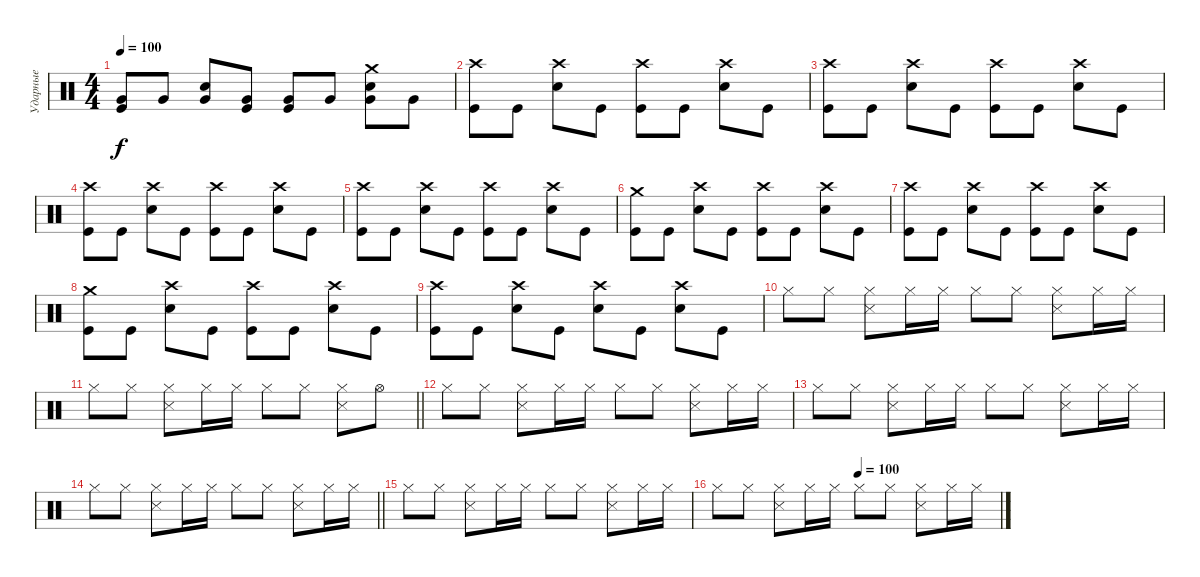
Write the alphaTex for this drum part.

\track ("Ударные" "Ударные") {instrument percussion}
\staff {score}
\articulation defaults
\ts (4 4)
\tempo 100
\clef neutral
\ks c
("Very Low Tom (hit)" "Kick (hit)").8{dy f} "Very Low Tom (hit)".8 ("Very Low Tom (hit)" "Snare (hit) 2").8 ("Very Low Tom (hit)" "Kick (hit)").8 ("Very Low Tom (hit)" "Kick (hit)").8 "Very Low Tom (hit)".8 ("Crash medium (hit)" "Very Low Tom (hit)" "Snare (hit) 2").8 "Very Low Tom (hit)".8 |
("Crash high (hit)" "Kick (hit)").8 "Kick (hit)".8 ("Crash high (hit)" "Snare (hit) 2").8 "Kick (hit)".8 ("Crash high (hit)" "Kick (hit)").8 "Kick (hit)".8 ("Crash high (hit)" "Snare (hit) 2").8 "Kick (hit)".8 |
("Crash high (hit)" "Kick (hit)").8 "Kick (hit)".8 ("Crash high (hit)" "Snare (hit) 2").8 "Kick (hit)".8 ("Crash high (hit)" "Kick (hit)").8 "Kick (hit)".8 ("Crash high (hit)" "Snare (hit) 2").8 "Kick (hit)".8 |
("Crash high (hit)" "Kick (hit)").8 "Kick (hit)".8 ("Crash high (hit)" "Snare (hit) 2").8 "Kick (hit)".8 ("Crash high (hit)" "Kick (hit)").8 "Kick (hit)".8 ("Crash high (hit)" "Snare (hit) 2").8 "Kick (hit)".8 |
("Crash high (hit)" "Kick (hit)").8 "Kick (hit)".8 ("Crash high (hit)" "Snare (hit) 2").8 "Kick (hit)".8 ("Crash high (hit)" "Kick (hit)").8 "Kick (hit)".8 ("Crash high (hit)" "Snare (hit) 2").8 "Kick (hit)".8 |
("Crash medium (hit)" "Kick (hit)").8 "Kick (hit)".8 ("Crash high (hit)" "Snare (hit) 2").8 "Kick (hit)".8 ("Crash high (hit)" "Kick (hit)").8 "Kick (hit)".8 ("Crash high (hit)" "Snare (hit) 2").8 "Kick (hit)".8 |
("Crash high (hit)" "Kick (hit)").8 "Kick (hit)".8 ("Crash high (hit)" "Snare (hit) 2").8 "Kick (hit)".8 ("Crash high (hit)" "Kick (hit)").8 "Kick (hit)".8 ("Crash high (hit)" "Snare (hit) 2").8 "Kick (hit)".8 |
("Crash medium (hit)" "Kick (hit)").8 "Kick (hit)".8 ("Crash high (hit)" "Snare (hit) 2").8 "Kick (hit)".8 ("Crash high (hit)" "Kick (hit)").8 "Kick (hit)".8 ("Crash high (hit)" "Snare (hit) 2").8 "Kick (hit)".8 |
("Crash high (hit)" "Kick (hit)").8 "Kick (hit)".8 ("Crash high (hit)" "Snare (hit) 2").8 "Kick (hit)".8 ("Crash high (hit)" "Snare (hit) 2").8 "Kick (hit)".8 ("Crash high (hit)" "Snare (hit) 2").8 "Kick (hit)".8 |
"Hi-Hat (closed)".8 "Hi-Hat (closed)".8 ("Hi-Hat (closed)" "Snare (side stick) 3").8 "Hi-Hat (closed)".16 "Hi-Hat (closed)".16 "Hi-Hat (closed)".8 "Hi-Hat (closed)".8 ("Hi-Hat (closed)" "Snare (side stick) 3").8 "Hi-Hat (closed)".16 "Hi-Hat (closed)".16 |
\barLineRight lightlight "Hi-Hat (closed)".8 "Hi-Hat (closed)".8
("Hi-Hat (closed)" "Snare (side stick) 3").8 "Hi-Hat (closed)".16 "Hi-Hat (closed)".16 "Hi-Hat (closed)".8 "Hi-Hat (closed)".8 ("Hi-Hat (closed)" "Snare (side stick) 3").8 "Hi-Hat (open)".8 |
"Hi-Hat (closed)".8 "Hi-Hat (closed)".8 ("Hi-Hat (closed)" "Snare (side stick) 3").8 "Hi-Hat (closed)".16 "Hi-Hat (closed)".16 "Hi-Hat (closed)".8 "Hi-Hat (closed)".8 ("Hi-Hat (closed)" "Snare (side stick) 3").8 "Hi-Hat (closed)".16 "Hi-Hat (closed)".16 |
"Hi-Hat (closed)".8 "Hi-Hat (closed)".8 ("Hi-Hat (closed)" "Snare (side stick) 3").8 "Hi-Hat (closed)".16 "Hi-Hat (closed)".16 "Hi-Hat (closed)".8 "Hi-Hat (closed)".8 ("Hi-Hat (closed)" "Snare (side stick) 3").8 "Hi-Hat (closed)".16 "Hi-Hat (closed)".16 |
\barLineRight lightlight "Hi-Hat (closed)".8 "Hi-Hat (closed)".8
("Hi-Hat (closed)" "Snare (side stick) 3").8 "Hi-Hat (closed)".16 "Hi-Hat (closed)".16 "Hi-Hat (closed)".8 "Hi-Hat (closed)".8 ("Hi-Hat (closed)" "Snare (side stick) 3").8 "Hi-Hat (closed)".16 "Hi-Hat (closed)".16 |
"Hi-Hat (closed)".8 "Hi-Hat (closed)".8 ("Hi-Hat (closed)" "Snare (side stick) 3").8 "Hi-Hat (closed)".16 "Hi-Hat (closed)".16 "Hi-Hat (closed)".8 "Hi-Hat (closed)".8 ("Hi-Hat (closed)" "Snare (side stick) 3").8 "Hi-Hat (closed)".16 "Hi-Hat (closed)".16 |
\tempo (100 0.5)
"Hi-Hat (closed)".8 "Hi-Hat (closed)".8 ("Hi-Hat (closed)" "Snare (side stick) 3").8 "Hi-Hat (closed)".16 "Hi-Hat (closed)".16 "Hi-Hat (closed)".8 "Hi-Hat (closed)".8 ("Hi-Hat (closed)" "Snare (side stick) 3").8 "Hi-Hat (closed)".16 "Hi-Hat (closed)".16
